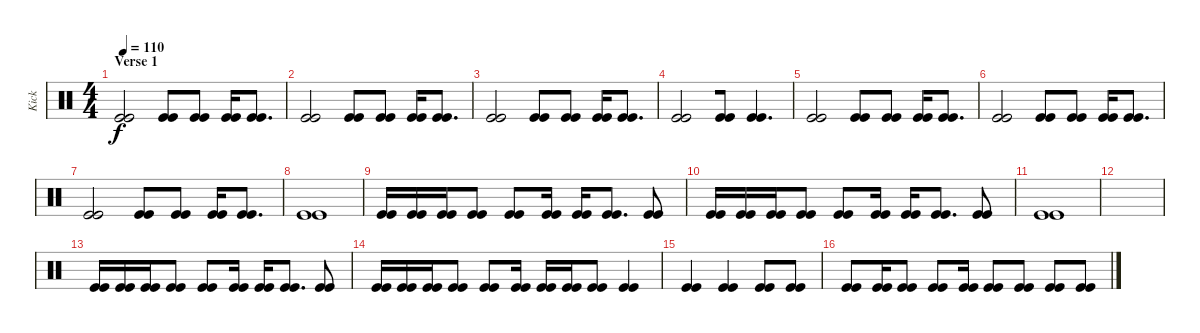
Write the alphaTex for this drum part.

\track ("Kick" "Kick") {instrument percussion}
\staff {score}
\articulation defaults
\ts (4 4)
\section ("" "Verse 1")
\tempo 110
\clef neutral
\ks c
("Kick (hit)" "Kick (hit)").2{dy f beam merge} ("Kick (hit)" "Kick (hit)").8 ("Kick (hit)" "Kick (hit)").8 ("Kick (hit)" "Kick (hit)").16 ("Kick (hit)" "Kick (hit)").8{d} |
("Kick (hit)" "Kick (hit)").2{beam merge} ("Kick (hit)" "Kick (hit)").8 ("Kick (hit)" "Kick (hit)").8 ("Kick (hit)" "Kick (hit)").16 ("Kick (hit)" "Kick (hit)").8{d} |
("Kick (hit)" "Kick (hit)").2{beam merge} ("Kick (hit)" "Kick (hit)").8 ("Kick (hit)" "Kick (hit)").8 ("Kick (hit)" "Kick (hit)").16 ("Kick (hit)" "Kick (hit)").8{d} |
("Kick (hit)" "Kick (hit)").2{beam merge} ("Kick (hit)" "Kick (hit)").8 ("Kick (hit)" "Kick (hit)").4{d} |
("Kick (hit)" "Kick (hit)").2{beam merge} ("Kick (hit)" "Kick (hit)").8 ("Kick (hit)" "Kick (hit)").8 ("Kick (hit)" "Kick (hit)").16 ("Kick (hit)" "Kick (hit)").8{d} |
("Kick (hit)" "Kick (hit)").2{beam merge} ("Kick (hit)" "Kick (hit)").8 ("Kick (hit)" "Kick (hit)").8 ("Kick (hit)" "Kick (hit)").16 ("Kick (hit)" "Kick (hit)").8{d} |
("Kick (hit)" "Kick (hit)").2{beam merge} ("Kick (hit)" "Kick (hit)").8 ("Kick (hit)" "Kick (hit)").8 ("Kick (hit)" "Kick (hit)").16 ("Kick (hit)" "Kick (hit)").8{d} |
("Kick (hit)" "Kick (hit)").1 |
("Kick (hit)" "Kick (hit)").16 ("Kick (hit)" "Kick (hit)").16 ("Kick (hit)" "Kick (hit)").16{beam merge} ("Kick (hit)" "Kick (hit)").8 ("Kick (hit)" "Kick (hit)").8 ("Kick (hit)" "Kick (hit)").16 ("Kick (hit)" "Kick (hit)").16 ("Kick (hit)" "Kick (hit)").8{d} ("Kick (hit)" "Kick (hit)").8 |
("Kick (hit)" "Kick (hit)").16 ("Kick (hit)" "Kick (hit)").16 ("Kick (hit)" "Kick (hit)").16{beam merge} ("Kick (hit)" "Kick (hit)").8 ("Kick (hit)" "Kick (hit)").8 ("Kick (hit)" "Kick (hit)").16 ("Kick (hit)" "Kick (hit)").16 ("Kick (hit)" "Kick (hit)").8{d} ("Kick (hit)" "Kick (hit)").8 |
("Kick (hit)" "Kick (hit)").1 |
|
("Kick (hit)" "Kick (hit)").16 ("Kick (hit)" "Kick (hit)").16 ("Kick (hit)" "Kick (hit)").16{beam merge} ("Kick (hit)" "Kick (hit)").8 ("Kick (hit)" "Kick (hit)").8 ("Kick (hit)" "Kick (hit)").16 ("Kick (hit)" "Kick (hit)").16 ("Kick (hit)" "Kick (hit)").8{d} ("Kick (hit)" "Kick (hit)").8 |
("Kick (hit)" "Kick (hit)").16 ("Kick (hit)" "Kick (hit)").16 ("Kick (hit)" "Kick (hit)").16{beam merge} ("Kick (hit)" "Kick (hit)").8 ("Kick (hit)" "Kick (hit)").8 ("Kick (hit)" "Kick (hit)").16 ("Kick (hit)" "Kick (hit)").16 ("Kick (hit)" "Kick (hit)").16{beam merge} ("Kick (hit)" "Kick (hit)").8 ("Kick (hit)" "Kick (hit)").4 |
("Kick (hit)" "Kick (hit)").4 ("Kick (hit)" "Kick (hit)").4{beam merge} ("Kick (hit)" "Kick (hit)").8 ("Kick (hit)" "Kick (hit)").8 |
("Kick (hit)" "Kick (hit)").8{beam merge} ("Kick (hit)" "Kick (hit)").16 ("Kick (hit)" "Kick (hit)").8 ("Kick (hit)" "Kick (hit)").8{beam merge} ("Kick (hit)" "Kick (hit)").16 ("Kick (hit)" "Kick (hit)").8{beam merge} ("Kick (hit)" "Kick (hit)").8 ("Kick (hit)" "Kick (hit)").8{beam merge} ("Kick (hit)" "Kick (hit)").8
